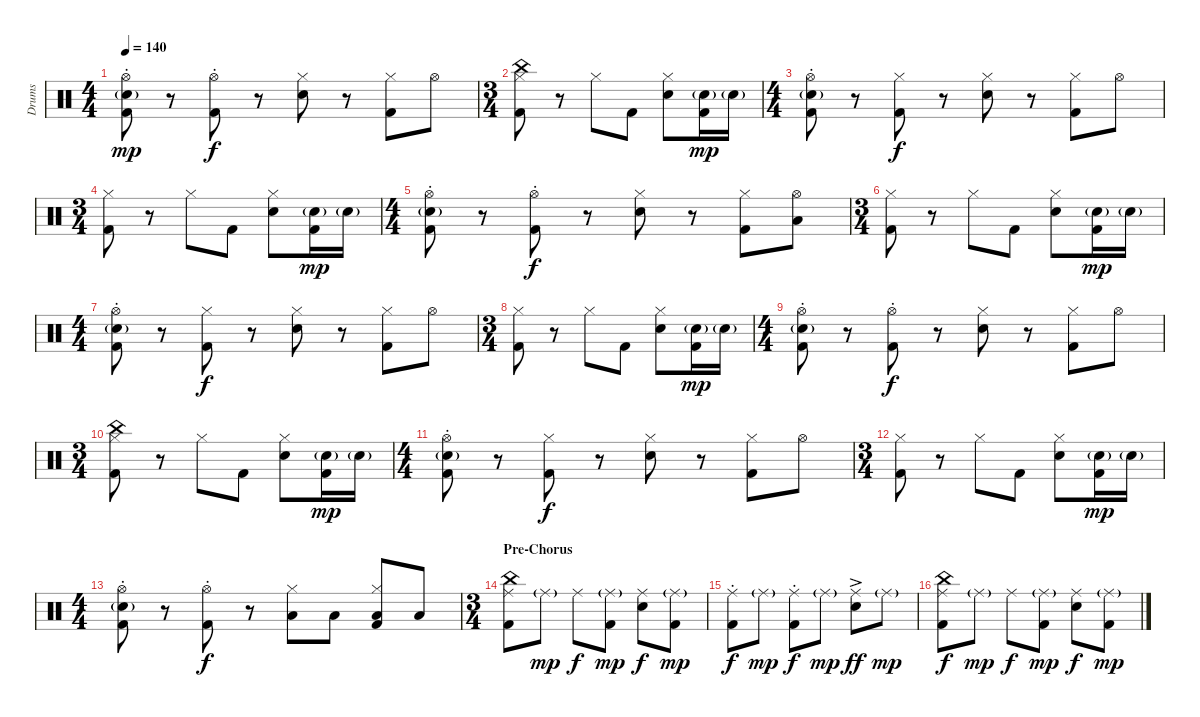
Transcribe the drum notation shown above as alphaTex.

\track ("Drums" "Drums") {instrument percussion}
\staff {score}
\articulation defaults
\ts (4 4)
\tempo 140
\clef neutral
\ks c
("Hi-Hat (open)"{st} "Snare (hit) 2"{g} "Kick (hit) 2").8{dy mp} r.8 ("Hi-Hat (open)"{st} "Kick (hit) 2").8{dy f} r.8 ("Hi-Hat (closed)" "Snare (hit) 2").8 r.8 ("Hi-Hat (closed)" "Kick (hit) 2").8 "Hi-Hat (open)".8 |
\ts (3 4)
("China (hit)" "Hi-Hat (closed)" "Kick (hit) 2").8 r.8 "Hi-Hat (closed)".8 "Kick (hit) 2".8 ("Hi-Hat (closed)" "Snare (hit) 2").8 ("Snare (hit) 2"{g} "Kick (hit) 2").16{dy mp} "Snare (hit) 2"{g}.16 |
\ts (4 4)
("Hi-Hat (open)"{st} "Snare (hit) 2"{g} "Kick (hit) 2").8 r.8 ("Hi-Hat (closed)" "Kick (hit) 2").8{dy f} r.8 ("Hi-Hat (closed)" "Snare (hit) 2").8 r.8 ("Hi-Hat (closed)" "Kick (hit) 2").8 "Hi-Hat (open)".8 |
\ts (3 4)
("Hi-Hat (closed)" "Kick (hit) 2").8 r.8 "Hi-Hat (closed)".8 "Kick (hit) 2".8 ("Hi-Hat (closed)" "Snare (hit) 2").8 ("Snare (hit) 2"{g} "Kick (hit) 2").16{dy mp} "Snare (hit) 2"{g}.16 |
\ts (4 4)
("Hi-Hat (open)"{st} "Snare (hit) 2"{g} "Kick (hit) 2").8 r.8 ("Hi-Hat (open)"{st} "Kick (hit) 2").8{dy f} r.8 ("Hi-Hat (closed)" "Snare (hit) 2").8 r.8 ("Hi-Hat (closed)" "Kick (hit) 2").8 ("Hi-Hat (open)" "Low Floor Tom (hit)").8 |
\ts (3 4)
("Hi-Hat (closed)" "Kick (hit) 2").8 r.8 "Hi-Hat (closed)".8 "Kick (hit) 2".8 ("Hi-Hat (closed)" "Snare (hit) 2").8 ("Snare (hit) 2"{g} "Kick (hit) 2").16{dy mp} "Snare (hit) 2"{g}.16 |
\ts (4 4)
("Hi-Hat (open)"{st} "Snare (hit) 2"{g} "Kick (hit) 2").8 r.8 ("Hi-Hat (closed)" "Kick (hit) 2").8{dy f} r.8 ("Hi-Hat (closed)" "Snare (hit) 2").8 r.8 ("Hi-Hat (closed)" "Kick (hit) 2").8 "Hi-Hat (open)".8 |
\ts (3 4)
("Hi-Hat (closed)" "Kick (hit) 2").8 r.8 "Hi-Hat (closed)".8 "Kick (hit) 2".8 ("Hi-Hat (closed)" "Snare (hit) 2").8 ("Snare (hit) 2"{g} "Kick (hit) 2").16{dy mp} "Snare (hit) 2"{g}.16 |
\ts (4 4)
("Hi-Hat (open)"{st} "Snare (hit) 2"{g} "Kick (hit) 2").8 r.8 ("Hi-Hat (open)"{st} "Kick (hit) 2").8{dy f} r.8 ("Hi-Hat (closed)" "Snare (hit) 2").8 r.8 ("Hi-Hat (closed)" "Kick (hit) 2").8 "Hi-Hat (open)".8 |
\ts (3 4)
("China (hit)" "Hi-Hat (closed)" "Kick (hit) 2").8 r.8 "Hi-Hat (closed)".8 "Kick (hit) 2".8 ("Hi-Hat (closed)" "Snare (hit) 2").8 ("Snare (hit) 2"{g} "Kick (hit) 2").16{dy mp} "Snare (hit) 2"{g}.16 |
\ts (4 4)
("Hi-Hat (open)"{st} "Snare (hit) 2"{g} "Kick (hit) 2").8 r.8 ("Hi-Hat (closed)" "Kick (hit) 2").8{dy f} r.8 ("Hi-Hat (closed)" "Snare (hit) 2").8 r.8 ("Hi-Hat (closed)" "Kick (hit) 2").8 "Hi-Hat (open)".8 |
\ts (3 4)
("Hi-Hat (closed)" "Kick (hit) 2").8 r.8 "Hi-Hat (closed)".8 "Kick (hit) 2".8 ("Hi-Hat (closed)" "Snare (hit) 2").8 ("Snare (hit) 2"{g} "Kick (hit) 2").16{dy mp} "Snare (hit) 2"{g}.16 |
\ts (4 4)
("Hi-Hat (open)"{st} "Snare (hit) 2"{g} "Kick (hit) 2").8 r.8 ("Hi-Hat (open)"{st} "Kick (hit) 2").8{dy f} r.8 ("Hi-Hat (closed)" "Low Tom (hit)").8 "Low Tom (hit)".8 ("Hi-Hat (closed)" "Low Tom (hit)" "Kick (hit) 2").8 "Low Tom (hit)".8 |
\ts (3 4)
\section ("" "Pre-Chorus")
("China (hit)" "Ride (middle)" "Kick (hit) 2").8 "Ride (middle)"{g}.8{dy mp} "Ride (middle)".8{dy f} ("Ride (middle)"{g} "Kick (hit) 2").8{dy mp} ("Ride (middle)" "Snare (hit) 2").8{dy f} ("Ride (middle)"{g} "Kick (hit) 2").8{dy mp} |
("Ride (middle)"{st} "Kick (hit) 2").8{dy f} "Ride (middle)"{g}.8{dy mp} ("Ride (middle)"{st} "Kick (hit) 2").8{dy f} "Ride (middle)"{g}.8{dy mp} ("Snare (hit) 2"{ac} "Ride (middle)").8{dy ff} "Ride (middle)"{g}.8{dy mp} |
("China (hit)" "Ride (middle)" "Kick (hit) 2").8{dy f} "Ride (middle)"{g}.8{dy mp} "Ride (middle)".8{dy f} ("Ride (middle)"{g} "Kick (hit) 2").8{dy mp} ("Ride (middle)" "Snare (hit) 2").8{dy f} ("Ride (middle)"{g} "Kick (hit) 2").8{dy mp}
